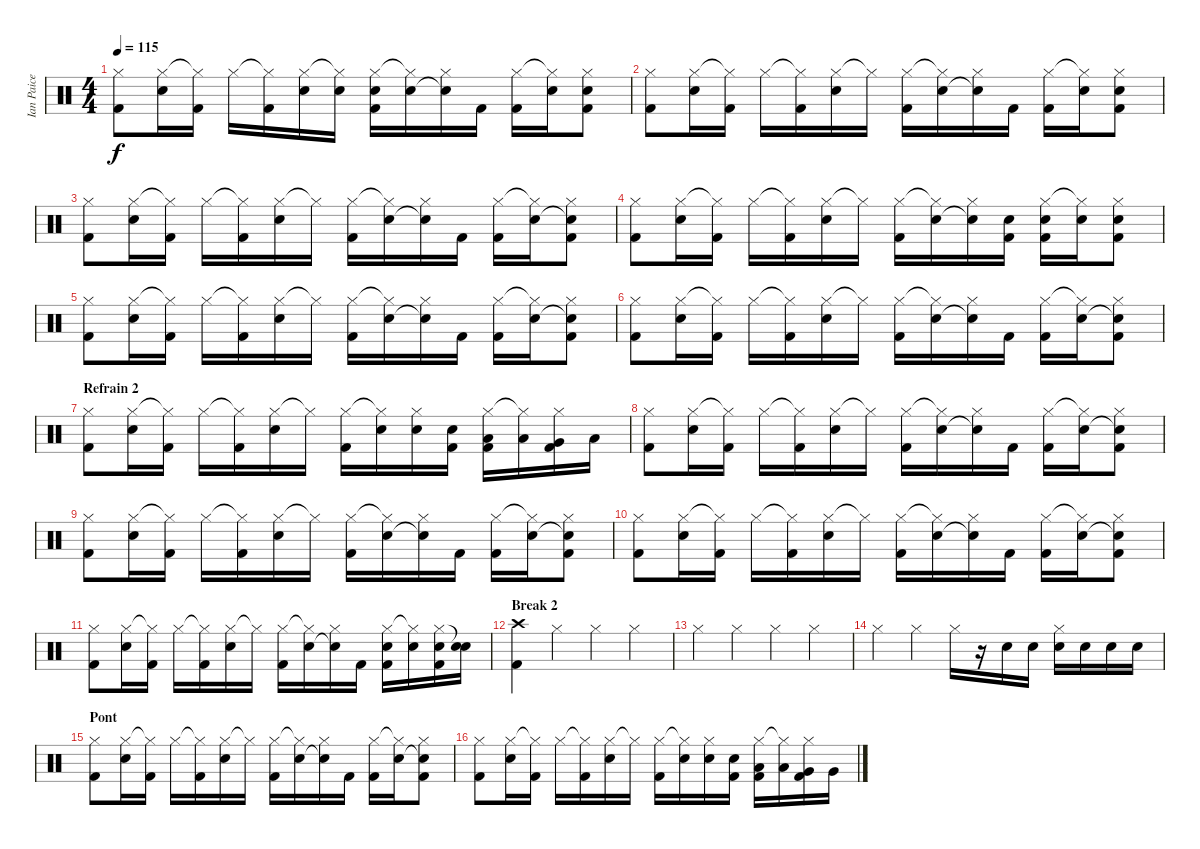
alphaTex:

\track ("Ian Paice" "Ian Paice") {instrument percussion}
\staff {score}
\articulation defaults
\ts (4 4)
\tempo 115
\clef neutral
\ks c
("Hi-Hat (closed)" "Kick (hit) 2").8{dy f} ("Hi-Hat (closed)" "Snare (hit) 2").16 ("Hi-Hat (closed)"{t} "Kick (hit) 2").16 "Hi-Hat (closed)".16 ("Hi-Hat (closed)"{t} "Kick (hit) 2").16 ("Hi-Hat (closed)" "Snare (hit) 2").16 ("Hi-Hat (closed)"{t} "Snare (hit) 2").16 ("Hi-Hat (closed)" "Snare (hit) 2" "Kick (hit) 2").16 ("Hi-Hat (closed)"{t} "Snare (hit) 2").16 ("Hi-Hat (closed)" "Snare (hit) 2"{t}).16 "Kick (hit) 2".16 ("Hi-Hat (closed)" "Kick (hit) 2").16 ("Hi-Hat (closed)"{t} "Snare (hit) 2").16 ("Hi-Hat (closed)" "Snare (hit) 2" "Kick (hit) 2").8 |
("Hi-Hat (closed)" "Kick (hit) 2").8 ("Hi-Hat (closed)" "Snare (hit) 2").16 ("Hi-Hat (closed)"{t} "Kick (hit) 2").16 "Hi-Hat (closed)".16 ("Hi-Hat (closed)"{t} "Kick (hit) 2").16 ("Hi-Hat (closed)" "Snare (hit) 2").16 "Hi-Hat (closed)"{t}.16 ("Hi-Hat (closed)" "Kick (hit) 2").16 ("Hi-Hat (closed)"{t} "Snare (hit) 2").16 ("Hi-Hat (closed)" "Snare (hit) 2"{t}).16 "Kick (hit) 2".16 ("Hi-Hat (closed)" "Kick (hit) 2").16 ("Hi-Hat (closed)"{t} "Snare (hit) 2").16 ("Hi-Hat (closed)" "Snare (hit) 2" "Kick (hit) 2").8 |
("Hi-Hat (closed)" "Kick (hit) 2").8 ("Hi-Hat (closed)" "Snare (hit) 2").16 ("Hi-Hat (closed)"{t} "Kick (hit) 2").16 "Hi-Hat (closed)".16 ("Hi-Hat (closed)"{t} "Kick (hit) 2").16 ("Hi-Hat (closed)" "Snare (hit) 2").16 "Hi-Hat (closed)"{t}.16 ("Hi-Hat (closed)" "Kick (hit) 2").16 ("Hi-Hat (closed)"{t} "Snare (hit) 2").16 ("Hi-Hat (closed)" "Snare (hit) 2"{t}).16 "Kick (hit) 2".16 ("Hi-Hat (closed)" "Kick (hit) 2").16 ("Hi-Hat (closed)"{t} "Snare (hit) 2").16 ("Hi-Hat (closed)" "Snare (hit) 2"{t} "Kick (hit) 2").8 |
("Hi-Hat (closed)" "Kick (hit) 2").8 ("Hi-Hat (closed)" "Snare (hit) 2").16 ("Hi-Hat (closed)"{t} "Kick (hit) 2").16 "Hi-Hat (closed)".16 ("Hi-Hat (closed)"{t} "Kick (hit) 2").16 ("Hi-Hat (closed)" "Snare (hit) 2").16 "Hi-Hat (closed)"{t}.16 ("Hi-Hat (closed)" "Kick (hit) 2").16 ("Hi-Hat (closed)"{t} "Snare (hit) 2").16 ("Hi-Hat (closed)" "Snare (hit) 2"{t}).16 ("Snare (hit) 2" "Kick (hit) 2").16 ("Hi-Hat (closed)" "Snare (hit) 2" "Kick (hit) 2").16 ("Hi-Hat (closed)"{t} "Snare (hit) 2").16 ("Hi-Hat (closed)" "Snare (hit) 2" "Kick (hit) 2").8 |
("Hi-Hat (closed)" "Kick (hit) 2").8 ("Hi-Hat (closed)" "Snare (hit) 2").16 ("Hi-Hat (closed)"{t} "Kick (hit) 2").16 "Hi-Hat (closed)".16 ("Hi-Hat (closed)"{t} "Kick (hit) 2").16 ("Hi-Hat (closed)" "Snare (hit) 2").16 "Hi-Hat (closed)"{t}.16 ("Hi-Hat (closed)" "Kick (hit) 2").16 ("Hi-Hat (closed)"{t} "Snare (hit) 2").16 ("Hi-Hat (closed)" "Snare (hit) 2"{t}).16 "Kick (hit) 2".16 ("Hi-Hat (closed)" "Kick (hit) 2").16 ("Hi-Hat (closed)"{t} "Snare (hit) 2").16 ("Hi-Hat (closed)" "Snare (hit) 2"{t} "Kick (hit) 2").8 |
("Hi-Hat (closed)" "Kick (hit) 2").8 ("Hi-Hat (closed)" "Snare (hit) 2").16 ("Hi-Hat (closed)"{t} "Kick (hit) 2").16 "Hi-Hat (closed)".16 ("Hi-Hat (closed)"{t} "Kick (hit) 2").16 ("Hi-Hat (closed)" "Snare (hit) 2").16 "Hi-Hat (closed)"{t}.16 ("Hi-Hat (closed)" "Kick (hit) 2").16 ("Hi-Hat (closed)"{t} "Snare (hit) 2").16 ("Hi-Hat (closed)" "Snare (hit) 2"{t}).16 "Kick (hit) 2".16 ("Hi-Hat (closed)" "Kick (hit) 2").16 ("Hi-Hat (closed)"{t} "Snare (hit) 2").16 ("Hi-Hat (closed)" "Snare (hit) 2"{t} "Kick (hit) 2").8 |
\section ("" "Refrain 2")
("Hi-Hat (closed)" "Kick (hit) 2").8 ("Hi-Hat (closed)" "Snare (hit) 2").16 ("Hi-Hat (closed)"{t} "Kick (hit) 2").16 "Hi-Hat (closed)".16 ("Hi-Hat (closed)"{t} "Kick (hit) 2").16 ("Hi-Hat (closed)" "Snare (hit) 2").16 "Hi-Hat (closed)"{t}.16 ("Hi-Hat (closed)" "Kick (hit) 2").16 ("Hi-Hat (closed)"{t} "Snare (hit) 2").16 ("Hi-Hat (closed)" "Snare (hit) 2").16 ("Snare (hit) 2" "Kick (hit) 2").16 ("Hi-Hat (closed)" "Low Tom (hit)" "Kick (hit) 2").16 ("Hi-Hat (closed)"{t} "Low Tom (hit)").16 ("Hi-Hat (closed)" "Very Low Tom (hit)" "Kick (hit) 2").16 "Low Floor Tom (hit)".16 |
("Hi-Hat (closed)" "Kick (hit) 2").8 ("Hi-Hat (closed)" "Snare (hit) 2").16 ("Hi-Hat (closed)"{t} "Kick (hit) 2").16 "Hi-Hat (closed)".16 ("Hi-Hat (closed)"{t} "Kick (hit) 2").16 ("Hi-Hat (closed)" "Snare (hit) 2").16 "Hi-Hat (closed)"{t}.16 ("Hi-Hat (closed)" "Kick (hit) 2").16 ("Hi-Hat (closed)"{t} "Snare (hit) 2").16 ("Hi-Hat (closed)" "Snare (hit) 2"{t}).16 "Kick (hit) 2".16 ("Hi-Hat (closed)" "Kick (hit) 2").16 ("Hi-Hat (closed)"{t} "Snare (hit) 2").16 ("Hi-Hat (closed)" "Snare (hit) 2"{t} "Kick (hit) 2").8 |
("Hi-Hat (closed)" "Kick (hit) 2").8 ("Hi-Hat (closed)" "Snare (hit) 2").16 ("Hi-Hat (closed)"{t} "Kick (hit) 2").16 "Hi-Hat (closed)".16 ("Hi-Hat (closed)"{t} "Kick (hit) 2").16 ("Hi-Hat (closed)" "Snare (hit) 2").16 "Hi-Hat (closed)"{t}.16 ("Hi-Hat (closed)" "Kick (hit) 2").16 ("Hi-Hat (closed)"{t} "Snare (hit) 2").16 ("Hi-Hat (closed)" "Snare (hit) 2"{t}).16 "Kick (hit) 2".16 ("Hi-Hat (closed)" "Kick (hit) 2").16 ("Hi-Hat (closed)"{t} "Snare (hit) 2").16 ("Hi-Hat (closed)" "Snare (hit) 2"{t} "Kick (hit) 2").8 |
("Hi-Hat (closed)" "Kick (hit) 2").8 ("Hi-Hat (closed)" "Snare (hit) 2").16 ("Hi-Hat (closed)"{t} "Kick (hit) 2").16 "Hi-Hat (closed)".16 ("Hi-Hat (closed)"{t} "Kick (hit) 2").16 ("Hi-Hat (closed)" "Snare (hit) 2").16 "Hi-Hat (closed)"{t}.16 ("Hi-Hat (closed)" "Kick (hit) 2").16 ("Hi-Hat (closed)"{t} "Snare (hit) 2").16 ("Hi-Hat (closed)" "Snare (hit) 2"{t}).16 "Kick (hit) 2".16 ("Hi-Hat (closed)" "Kick (hit) 2").16 ("Hi-Hat (closed)"{t} "Snare (hit) 2").16 ("Hi-Hat (closed)" "Snare (hit) 2"{t} "Kick (hit) 2").8 |
("Hi-Hat (closed)" "Kick (hit) 2").8 ("Hi-Hat (closed)" "Snare (hit) 2").16 ("Hi-Hat (closed)"{t} "Kick (hit) 2").16 "Hi-Hat (closed)".16 ("Hi-Hat (closed)"{t} "Kick (hit) 2").16 ("Hi-Hat (closed)" "Snare (hit) 2").16 "Hi-Hat (closed)"{t}.16 ("Hi-Hat (closed)" "Kick (hit) 2").16 ("Hi-Hat (closed)"{t} "Snare (hit) 2").16 ("Hi-Hat (closed)" "Snare (hit) 2"{t}).16 "Kick (hit) 2".16 ("Hi-Hat (closed)" "Snare (hit) 2" "Kick (hit) 2").16 ("Hi-Hat (closed)"{t} "Snare (hit) 2").16 ("Hi-Hat (closed)" "Snare (hit) 2" "Kick (hit) 2").16 ("Snare (hit)"{t} "Snare (hit) 2").16 |
\section ("" "Break 2")
("Crash high (hit)" "Kick (hit) 2").4 "Hi-Hat (closed)".4 "Hi-Hat (closed)".4 "Hi-Hat (closed)".4 |
"Hi-Hat (closed)".4 "Hi-Hat (closed)".4 "Hi-Hat (closed)".4 "Hi-Hat (closed)".4 |
"Hi-Hat (closed)".4 "Hi-Hat (closed)".4 "Hi-Hat (closed)".16 r.16 "Snare (hit) 2".16 "Snare (hit) 2".16 ("Hi-Hat (closed)" "Snare (hit) 2").16 "Snare (hit) 2".16 "Snare (hit) 2".16 "Snare (hit) 2".16 |
\section ("" "Pont")
("Hi-Hat (closed)" "Kick (hit) 2").8 ("Hi-Hat (closed)" "Snare (hit) 2").16 ("Hi-Hat (closed)"{t} "Kick (hit) 2").16 "Hi-Hat (closed)".16 ("Hi-Hat (closed)"{t} "Kick (hit) 2").16 ("Hi-Hat (closed)" "Snare (hit) 2").16 "Hi-Hat (closed)"{t}.16 ("Hi-Hat (closed)" "Kick (hit) 2").16 ("Hi-Hat (closed)"{t} "Snare (hit) 2").16 ("Hi-Hat (closed)" "Snare (hit) 2"{t}).16 "Kick (hit) 2".16 ("Hi-Hat (closed)" "Kick (hit) 2").16 ("Hi-Hat (closed)"{t} "Snare (hit) 2").16 ("Hi-Hat (closed)" "Snare (hit) 2"{t} "Kick (hit) 2").8 |
("Hi-Hat (closed)" "Kick (hit) 2").8 ("Hi-Hat (closed)" "Snare (hit) 2").16 ("Hi-Hat (closed)"{t} "Kick (hit) 2").16 "Hi-Hat (closed)".16 ("Hi-Hat (closed)"{t} "Kick (hit) 2").16 ("Hi-Hat (closed)" "Snare (hit) 2").16 "Hi-Hat (closed)"{t}.16 ("Hi-Hat (closed)" "Kick (hit) 2").16 ("Hi-Hat (closed)"{t} "Snare (hit) 2").16 ("Hi-Hat (closed)" "Snare (hit) 2").16 ("Snare (hit) 2" "Kick (hit) 2").16 ("Hi-Hat (closed)" "Low Tom (hit)" "Kick (hit) 2").16 ("Hi-Hat (closed)"{t} "Low Tom (hit)").16 ("Hi-Hat (closed)" "Very Low Tom (hit)" "Kick (hit) 2").16 "Very Low Tom (hit)".16
